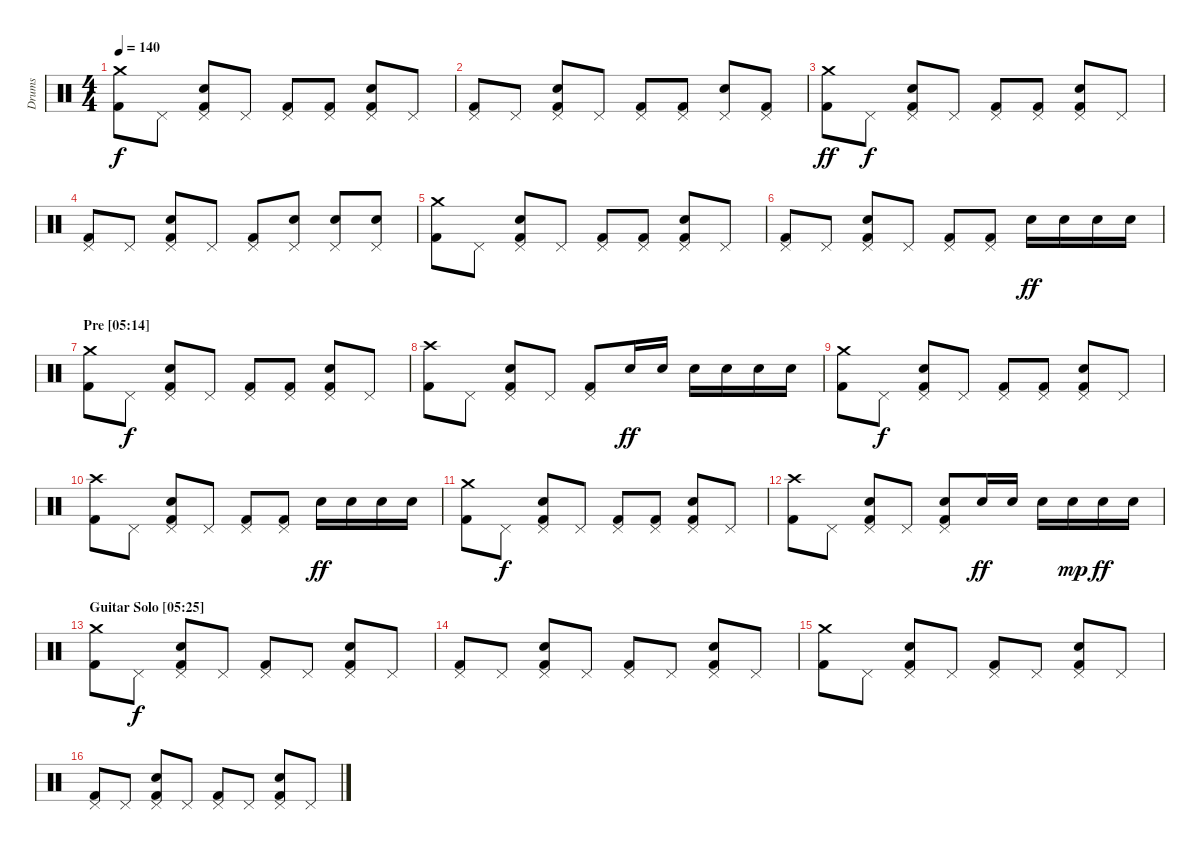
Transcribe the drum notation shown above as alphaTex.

\track ("Drums" "Drums") {instrument percussion}
\staff {score}
\articulation defaults
\ts (4 4)
\tempo 140
\clef neutral
\ks c
("Crash medium (hit)" "Kick (hit) 2").8{dy f} "Pedal Hi-Hat (hit)".8 ("Pedal Hi-Hat (hit)" "Electric Snare (hit)" "Kick (hit) 2").8 "Pedal Hi-Hat (hit)".8 ("Pedal Hi-Hat (hit)" "Kick (hit) 2").8 ("Pedal Hi-Hat (hit)" "Kick (hit) 2").8 ("Pedal Hi-Hat (hit)" "Electric Snare (hit)" "Kick (hit) 2").8 "Pedal Hi-Hat (hit)".8 |
("Pedal Hi-Hat (hit)" "Kick (hit) 2").8 "Pedal Hi-Hat (hit)".8 ("Pedal Hi-Hat (hit)" "Electric Snare (hit)" "Kick (hit) 2").8 "Pedal Hi-Hat (hit)".8 ("Pedal Hi-Hat (hit)" "Kick (hit) 2").8 ("Pedal Hi-Hat (hit)" "Kick (hit) 2").8 ("Pedal Hi-Hat (hit)" "Electric Snare (hit)").8 ("Pedal Hi-Hat (hit)" "Kick (hit) 2").8 |
\section ("" "")
("Crash medium (hit)" "Kick (hit) 2").8{dy ff} "Pedal Hi-Hat (hit)".8{dy f} ("Pedal Hi-Hat (hit)" "Electric Snare (hit)" "Kick (hit) 2").8 "Pedal Hi-Hat (hit)".8 ("Pedal Hi-Hat (hit)" "Kick (hit) 2").8 ("Pedal Hi-Hat (hit)" "Kick (hit) 2").8 ("Pedal Hi-Hat (hit)" "Electric Snare (hit)" "Kick (hit) 2").8 "Pedal Hi-Hat (hit)".8 |
("Pedal Hi-Hat (hit)" "Kick (hit) 2").8 "Pedal Hi-Hat (hit)".8 ("Pedal Hi-Hat (hit)" "Electric Snare (hit)" "Kick (hit) 2").8 "Pedal Hi-Hat (hit)".8 ("Pedal Hi-Hat (hit)" "Kick (hit) 2").8 ("Pedal Hi-Hat (hit)" "Electric Snare (hit)").8 ("Pedal Hi-Hat (hit)" "Electric Snare (hit)").8 ("Pedal Hi-Hat (hit)" "Electric Snare (hit)").8 |
("Crash medium (hit)" "Kick (hit) 2").8 "Pedal Hi-Hat (hit)".8 ("Pedal Hi-Hat (hit)" "Electric Snare (hit)" "Kick (hit) 2").8 "Pedal Hi-Hat (hit)".8 ("Pedal Hi-Hat (hit)" "Kick (hit) 2").8 ("Pedal Hi-Hat (hit)" "Kick (hit) 2").8 ("Pedal Hi-Hat (hit)" "Electric Snare (hit)" "Kick (hit) 2").8 "Pedal Hi-Hat (hit)".8 |
("Pedal Hi-Hat (hit)" "Kick (hit) 2").8 "Pedal Hi-Hat (hit)".8 ("Pedal Hi-Hat (hit)" "Electric Snare (hit)" "Kick (hit) 2").8 "Pedal Hi-Hat (hit)".8 ("Pedal Hi-Hat (hit)" "Kick (hit) 2").8 ("Pedal Hi-Hat (hit)" "Kick (hit) 2").8 "Electric Snare (hit)".16{dy ff} "Electric Snare (hit)".16 "Electric Snare (hit)".16 "Electric Snare (hit)".16 |
\section ("" "Pre [05:14]")
("Crash medium (hit)" "Kick (hit) 2").8 "Pedal Hi-Hat (hit)".8{dy f} ("Pedal Hi-Hat (hit)" "Electric Snare (hit)" "Kick (hit) 2").8 "Pedal Hi-Hat (hit)".8 ("Pedal Hi-Hat (hit)" "Kick (hit) 2").8 ("Pedal Hi-Hat (hit)" "Kick (hit) 2").8 ("Pedal Hi-Hat (hit)" "Electric Snare (hit)" "Kick (hit) 2").8 "Pedal Hi-Hat (hit)".8 |
("Crash high (hit)" "Kick (hit) 2").8 "Pedal Hi-Hat (hit)".8 ("Pedal Hi-Hat (hit)" "Electric Snare (hit)" "Kick (hit) 2").8 "Pedal Hi-Hat (hit)".8 ("Pedal Hi-Hat (hit)" "Kick (hit) 2").8 "Electric Snare (hit)".16{dy ff} "Electric Snare (hit)".16 "Electric Snare (hit)".16 "Electric Snare (hit)".16 "Electric Snare (hit)".16 "Electric Snare (hit)".16 |
("Crash medium (hit)" "Kick (hit) 2").8 "Pedal Hi-Hat (hit)".8{dy f} ("Pedal Hi-Hat (hit)" "Electric Snare (hit)" "Kick (hit) 2").8 "Pedal Hi-Hat (hit)".8 ("Pedal Hi-Hat (hit)" "Kick (hit) 2").8 ("Pedal Hi-Hat (hit)" "Kick (hit) 2").8 ("Pedal Hi-Hat (hit)" "Electric Snare (hit)" "Kick (hit) 2").8 "Pedal Hi-Hat (hit)".8 |
("Crash high (hit)" "Kick (hit) 2").8 "Pedal Hi-Hat (hit)".8 ("Pedal Hi-Hat (hit)" "Electric Snare (hit)" "Kick (hit) 2").8 "Pedal Hi-Hat (hit)".8 ("Pedal Hi-Hat (hit)" "Kick (hit) 2").8 ("Pedal Hi-Hat (hit)" "Kick (hit) 2").8 "Electric Snare (hit)".16{dy ff} "Electric Snare (hit)".16 "Electric Snare (hit)".16 "Electric Snare (hit)".16 |
\section ("" "")
("Crash medium (hit)" "Kick (hit) 2").8 "Pedal Hi-Hat (hit)".8{dy f} ("Pedal Hi-Hat (hit)" "Electric Snare (hit)" "Kick (hit) 2").8 "Pedal Hi-Hat (hit)".8 ("Pedal Hi-Hat (hit)" "Kick (hit) 2").8 ("Pedal Hi-Hat (hit)" "Kick (hit) 2").8 ("Pedal Hi-Hat (hit)" "Electric Snare (hit)" "Kick (hit) 2").8 "Pedal Hi-Hat (hit)".8 |
("Crash high (hit)" "Kick (hit) 2").8 "Pedal Hi-Hat (hit)".8 ("Pedal Hi-Hat (hit)" "Electric Snare (hit)" "Kick (hit) 2").8 "Pedal Hi-Hat (hit)".8 ("Pedal Hi-Hat (hit)" "Electric Snare (hit)" "Kick (hit) 2").8 "Electric Snare (hit)".16{dy ff} "Electric Snare (hit)".16 "Electric Snare (hit)".16 "Electric Snare (hit)".16{dy mp} "Electric Snare (hit)".16{dy ff} "Electric Snare (hit)".16 |
\section ("" "Guitar Solo [05:25]")
("Crash medium (hit)" "Kick (hit) 2").8 "Pedal Hi-Hat (hit)".8{dy f} ("Pedal Hi-Hat (hit)" "Electric Snare (hit)" "Kick (hit) 2").8 "Pedal Hi-Hat (hit)".8 ("Pedal Hi-Hat (hit)" "Kick (hit) 2").8 "Pedal Hi-Hat (hit)".8 ("Pedal Hi-Hat (hit)" "Electric Snare (hit)" "Kick (hit) 2").8 "Pedal Hi-Hat (hit)".8 |
("Pedal Hi-Hat (hit)" "Kick (hit) 2").8 "Pedal Hi-Hat (hit)".8 ("Pedal Hi-Hat (hit)" "Electric Snare (hit)" "Kick (hit) 2").8 "Pedal Hi-Hat (hit)".8 ("Pedal Hi-Hat (hit)" "Kick (hit) 2").8 "Pedal Hi-Hat (hit)".8 ("Pedal Hi-Hat (hit)" "Electric Snare (hit)" "Kick (hit) 2").8 "Pedal Hi-Hat (hit)".8 |
("Crash medium (hit)" "Kick (hit) 2").8 "Pedal Hi-Hat (hit)".8 ("Pedal Hi-Hat (hit)" "Electric Snare (hit)" "Kick (hit) 2").8 "Pedal Hi-Hat (hit)".8 ("Pedal Hi-Hat (hit)" "Kick (hit) 2").8 "Pedal Hi-Hat (hit)".8 ("Pedal Hi-Hat (hit)" "Electric Snare (hit)" "Kick (hit) 2").8 "Pedal Hi-Hat (hit)".8 |
("Pedal Hi-Hat (hit)" "Kick (hit) 2").8 "Pedal Hi-Hat (hit)".8 ("Pedal Hi-Hat (hit)" "Electric Snare (hit)" "Kick (hit) 2").8 "Pedal Hi-Hat (hit)".8 ("Pedal Hi-Hat (hit)" "Kick (hit) 2").8 "Pedal Hi-Hat (hit)".8 ("Pedal Hi-Hat (hit)" "Electric Snare (hit)" "Kick (hit) 2").8 "Pedal Hi-Hat (hit)".8
